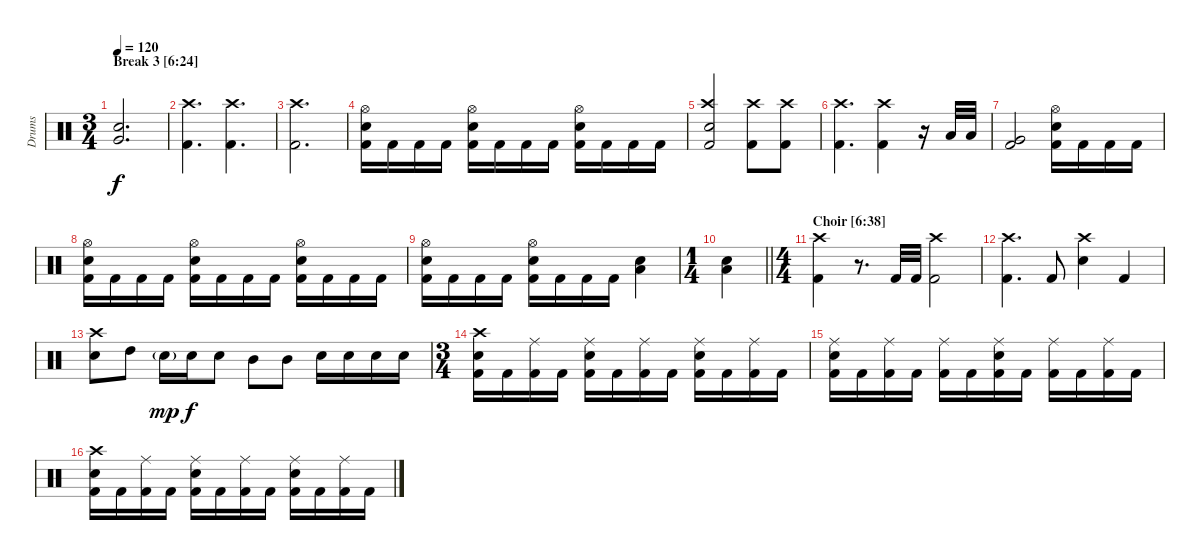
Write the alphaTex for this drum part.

\track ("Drums" "Drums") {instrument percussion}
\staff {score}
\articulation defaults
\ts (3 4)
\section ("" "Break 3 [6:24]")
\tempo 120
\clef neutral
\ks c
("Very Low Tom (hit)" "Snare (hit) 2").2{d dy f} |
("Crash high (hit)" "Kick (hit) 2").4{d} ("Crash high (hit)" "Kick (hit) 2").4{d} |
("Crash high (hit)" "Kick (hit) 2").2{d} |
("Hi-Hat (open)" "Snare (hit) 2" "Kick (hit) 2").16 "Kick (hit) 2".16 "Kick (hit) 2".16 "Kick (hit) 2".16 ("Hi-Hat (open)" "Snare (hit) 2" "Kick (hit) 2").16 "Kick (hit) 2".16 "Kick (hit) 2".16 "Kick (hit) 2".16 ("Hi-Hat (open)" "Snare (hit) 2" "Kick (hit) 2").16 "Kick (hit) 2".16 "Kick (hit) 2".16 "Kick (hit) 2".16 |
("Crash high (hit)" "Snare (hit) 2" "Kick (hit) 2").2 ("Crash high (hit)" "Kick (hit) 2").8 ("Crash high (hit)" "Kick (hit) 2").8 |
("Crash high (hit)" "Kick (hit) 2").4{d} ("Crash high (hit)" "Kick (hit) 2").4 r.16 "Low Tom (hit)".32 "Low Tom (hit)".32 |
("Very Low Tom (hit)" "Kick (hit) 2").2 ("Hi-Hat (open)" "Snare (hit) 2" "Kick (hit) 2").16 "Kick (hit) 2".16 "Kick (hit) 2".16 "Kick (hit) 2".16 |
("Hi-Hat (open)" "Snare (hit) 2" "Kick (hit) 2").16 "Kick (hit) 2".16 "Kick (hit) 2".16 "Kick (hit) 2".16 ("Hi-Hat (open)" "Snare (hit) 2" "Kick (hit) 2").16 "Kick (hit) 2".16 "Kick (hit) 2".16 "Kick (hit) 2".16 ("Hi-Hat (open)" "Snare (hit) 2" "Kick (hit) 2").16 "Kick (hit) 2".16 "Kick (hit) 2".16 "Kick (hit) 2".16 |
("Hi-Hat (open)" "Snare (hit) 2" "Kick (hit) 2").16 "Kick (hit) 2".16 "Kick (hit) 2".16 "Kick (hit) 2".16 ("Hi-Hat (open)" "Snare (hit) 2" "Kick (hit) 2").16 "Kick (hit) 2".16 "Kick (hit) 2".16 "Kick (hit) 2".16 ("Low Tom (hit)" "Snare (hit) 2").4 |
\ts (1 4)
\barLineRight lightlight
("Low Tom (hit)" "Snare (hit) 2").4 |
\ts (4 4)
\section ("" "Choir [6:38]")
("Crash high (hit)" "Kick (hit) 2").4 r.8{d} "Kick (hit) 2".32 "Kick (hit) 2".32 ("Crash high (hit)" "Kick (hit) 2").2 |
("Crash high (hit)" "Kick (hit) 2").4{d} "Kick (hit) 2".8 ("Crash high (hit)" "Snare (hit) 2").4 "Kick (hit) 2".4 |
("Crash high (hit)" "Snare (hit) 2").8 "High Tom (hit)".8 "Snare (hit) 2"{g}.16{dy mp} "Snare (hit) 2".16{dy f} "Snare (hit) 2".8 "Mid Tom (hit)".8 "Mid Tom (hit)".8 "Snare (hit) 2".16 "Snare (hit) 2".16 "Snare (hit) 2".16 "Snare (hit) 2".16 |
\ts (3 4)
("Crash high (hit)" "Snare (hit) 2" "Kick (hit) 2").16 "Kick (hit) 2".16 ("Ride (middle)" "Kick (hit) 2").16 "Kick (hit) 2".16 ("Ride (middle)" "Snare (hit) 2" "Kick (hit) 2").16 "Kick (hit) 2".16 ("Ride (middle)" "Kick (hit) 2").16 "Kick (hit) 2".16 ("Ride (middle)" "Snare (hit) 2" "Kick (hit) 2").16 "Kick (hit) 2".16 ("Ride (middle)" "Kick (hit) 2").16 "Kick (hit) 2".16 |
("Ride (middle)" "Snare (hit) 2" "Kick (hit) 2").16 "Kick (hit) 2".16 ("Ride (middle)" "Kick (hit) 2").16 "Kick (hit) 2".16 ("Ride (middle)" "Kick (hit) 2").16 "Kick (hit) 2".16 ("Ride (middle)" "Snare (hit) 2" "Kick (hit) 2").16 "Kick (hit) 2".16 ("Ride (middle)" "Kick (hit) 2").16 "Kick (hit) 2".16 ("Ride (middle)" "Kick (hit) 2").16 "Kick (hit) 2".16 |
("Crash high (hit)" "Snare (hit) 2" "Kick (hit) 2").16 "Kick (hit) 2".16 ("Ride (middle)" "Kick (hit) 2").16 "Kick (hit) 2".16 ("Ride (middle)" "Snare (hit) 2" "Kick (hit) 2").16 "Kick (hit) 2".16 ("Ride (middle)" "Kick (hit) 2").16 "Kick (hit) 2".16 ("Ride (middle)" "Snare (hit) 2" "Kick (hit) 2").16 "Kick (hit) 2".16 ("Ride (middle)" "Kick (hit) 2").16 "Kick (hit) 2".16
